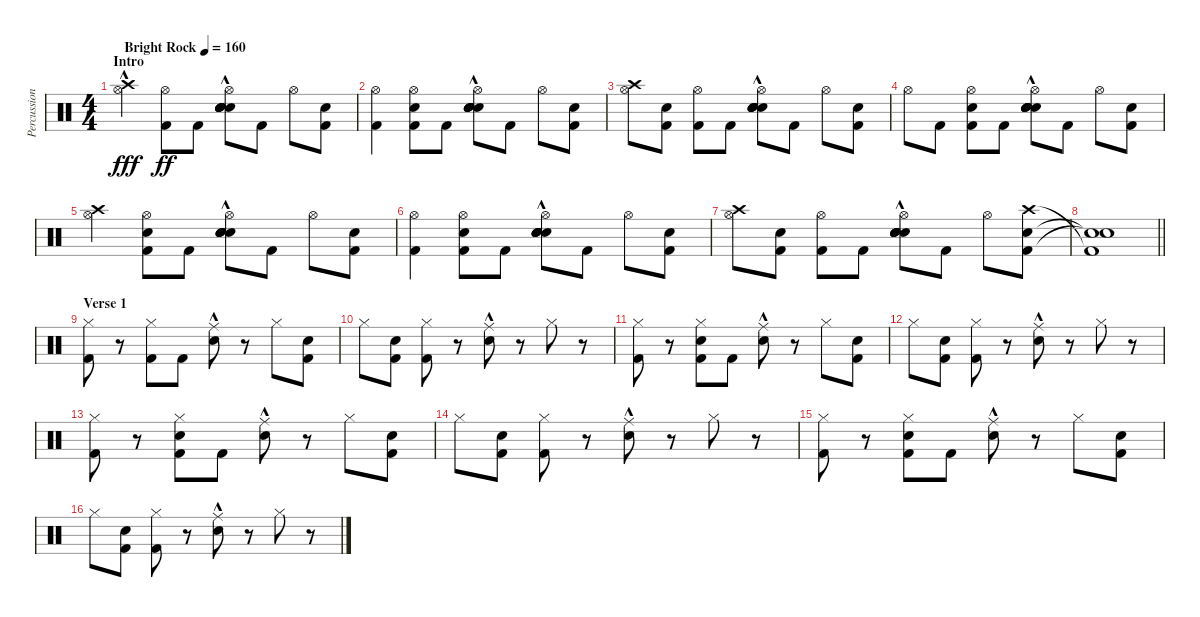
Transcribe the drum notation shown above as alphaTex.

\track ("Percussion" "Percussion") {instrument percussion}
\staff {score}
\articulation defaults
\ts (4 4)
\section ("" "Intro")
\tempo (160 "Bright Rock")
\clef neutral
\ks c
("Hi-Hat (open)"{hac} "Crash high (hit)"{hac}).4{dy fff} ("Hi-Hat (open)" "Kick (hit) 2").8{dy ff} "Kick (hit) 2".8 ("Hi-Hat (open)" "Electric Snare (hit)" "Electric Snare (hit)" "Electric Snare (hit)" "Electric Snare (hit)" "Electric Snare (hit)"{hac}).8 "Kick (hit) 2".8 "Hi-Hat (open)".8 ("Electric Snare (hit)" "Kick (hit) 2").8 |
("Hi-Hat (open)" "Kick (hit) 2").4 ("Hi-Hat (open)" "Kick (hit) 2" "Electric Snare (hit)").8 "Kick (hit) 2".8 ("Hi-Hat (open)" "Electric Snare (hit)"{hac} "Electric Snare (hit)"{hac} "Electric Snare (hit)"{hac} "Electric Snare (hit)"{hac} "Electric Snare (hit)"{hac}).8 "Kick (hit) 2".8 "Hi-Hat (open)".8 ("Kick (hit) 2" "Electric Snare (hit)").8 |
("Hi-Hat (open)" "Crash high (hit)").8 ("Kick (hit) 2" "Electric Snare (hit)").8 ("Hi-Hat (open)" "Kick (hit) 2").8 "Kick (hit) 2".8 ("Hi-Hat (open)" "Electric Snare (hit)"{hac} "Electric Snare (hit)"{hac} "Electric Snare (hit)"{hac} "Electric Snare (hit)"{hac} "Electric Snare (hit)"{hac}).8 "Kick (hit) 2".8 "Hi-Hat (open)".8 ("Kick (hit) 2" "Electric Snare (hit)").8 |
"Hi-Hat (open)".8 "Kick (hit) 2".8 ("Hi-Hat (open)" "Kick (hit) 2" "Electric Snare (hit)").8 "Kick (hit) 2".8 ("Hi-Hat (open)" "Electric Snare (hit)"{hac} "Electric Snare (hit)"{hac} "Electric Snare (hit)"{hac} "Electric Snare (hit)"{hac} "Electric Snare (hit)"{hac}).8 "Kick (hit) 2".8 "Hi-Hat (open)".8 ("Kick (hit) 2" "Electric Snare (hit)").8 |
("Hi-Hat (open)" "Crash high (hit)").4 ("Hi-Hat (open)" "Kick (hit) 2" "Electric Snare (hit)").8 "Kick (hit) 2".8 ("Hi-Hat (open)" "Electric Snare (hit)"{hac} "Electric Snare (hit)"{hac} "Electric Snare (hit)"{hac} "Electric Snare (hit)"{hac} "Electric Snare (hit)"{hac}).8 "Kick (hit) 2".8 "Hi-Hat (open)".8 ("Kick (hit) 2" "Electric Snare (hit)").8 |
("Hi-Hat (open)" "Kick (hit) 2").4 ("Hi-Hat (open)" "Kick (hit) 2" "Electric Snare (hit)").8 "Kick (hit) 2".8 ("Hi-Hat (open)" "Electric Snare (hit)"{hac} "Electric Snare (hit)"{hac} "Electric Snare (hit)"{hac} "Electric Snare (hit)"{hac} "Electric Snare (hit)"{hac}).8 "Kick (hit) 2".8 "Hi-Hat (open)".8 ("Kick (hit) 2" "Electric Snare (hit)").8 |
("Hi-Hat (open)" "Crash high (hit)").8 ("Kick (hit) 2" "Electric Snare (hit)").8 ("Hi-Hat (open)" "Kick (hit) 2").8 "Kick (hit) 2".8 ("Hi-Hat (open)" "Electric Snare (hit)"{hac} "Electric Snare (hit)"{hac} "Electric Snare (hit)"{hac} "Electric Snare (hit)"{hac} "Electric Snare (hit)"{hac}).8 "Kick (hit) 2".8 "Hi-Hat (open)".8 ("Kick (hit) 2" "Crash high (hit)" "Electric Snare (hit)").8 |
\barLineRight lightlight
("Electric Snare (hit)"{t} "Kick (hit) 2"{t} "Snare (hit)"{t}).1 |
\section ("" "Verse 1")
("Hi-Hat (closed)" "Kick (hit) 2").8 r.8 ("Hi-Hat (closed)" "Kick (hit) 2").8 "Kick (hit) 2".8 ("Ride (middle)" "Electric Snare (hit)"{hac}).8 r.8 "Hi-Hat (closed)".8 ("Electric Snare (hit)" "Kick (hit) 2").8 |
"Hi-Hat (closed)".8 ("Kick (hit) 2" "Electric Snare (hit)").8 ("Hi-Hat (closed)" "Kick (hit) 2").8 r.8 ("Ride (middle)" "Electric Snare (hit)"{hac}).8 r.8 "Hi-Hat (closed)".8 r.8 |
("Hi-Hat (closed)" "Kick (hit) 2").8 r.8 ("Hi-Hat (closed)" "Kick (hit) 2" "Electric Snare (hit)").8 "Kick (hit) 2".8 ("Ride (middle)" "Electric Snare (hit)"{hac}).8 r.8 "Hi-Hat (closed)".8 ("Electric Snare (hit)" "Kick (hit) 2").8 |
"Hi-Hat (closed)".8 ("Kick (hit) 2" "Electric Snare (hit)").8 ("Hi-Hat (closed)" "Kick (hit) 2").8 r.8 ("Ride (middle)" "Electric Snare (hit)"{hac}).8 r.8 "Hi-Hat (closed)".8 r.8 |
("Hi-Hat (closed)" "Kick (hit) 2").8 r.8 ("Hi-Hat (closed)" "Kick (hit) 2" "Electric Snare (hit)").8 "Kick (hit) 2".8 ("Ride (middle)" "Electric Snare (hit)"{hac}).8 r.8 "Hi-Hat (closed)".8 ("Electric Snare (hit)" "Kick (hit) 2").8 |
"Hi-Hat (closed)".8 ("Kick (hit) 2" "Electric Snare (hit)").8 ("Hi-Hat (closed)" "Kick (hit) 2").8 r.8 ("Ride (middle)" "Electric Snare (hit)"{hac}).8 r.8 "Hi-Hat (closed)".8 r.8 |
("Hi-Hat (closed)" "Kick (hit) 2").8 r.8 ("Hi-Hat (closed)" "Kick (hit) 2" "Electric Snare (hit)").8 "Kick (hit) 2".8 ("Ride (middle)" "Electric Snare (hit)"{hac}).8 r.8 "Hi-Hat (closed)".8 ("Kick (hit) 2" "Electric Snare (hit)").8 |
"Hi-Hat (closed)".8 ("Kick (hit) 2" "Electric Snare (hit)").8 ("Hi-Hat (closed)" "Kick (hit) 2").8 r.8 ("Ride (middle)" "Electric Snare (hit)"{hac}).8 r.8 "Hi-Hat (closed)".8 r.8
